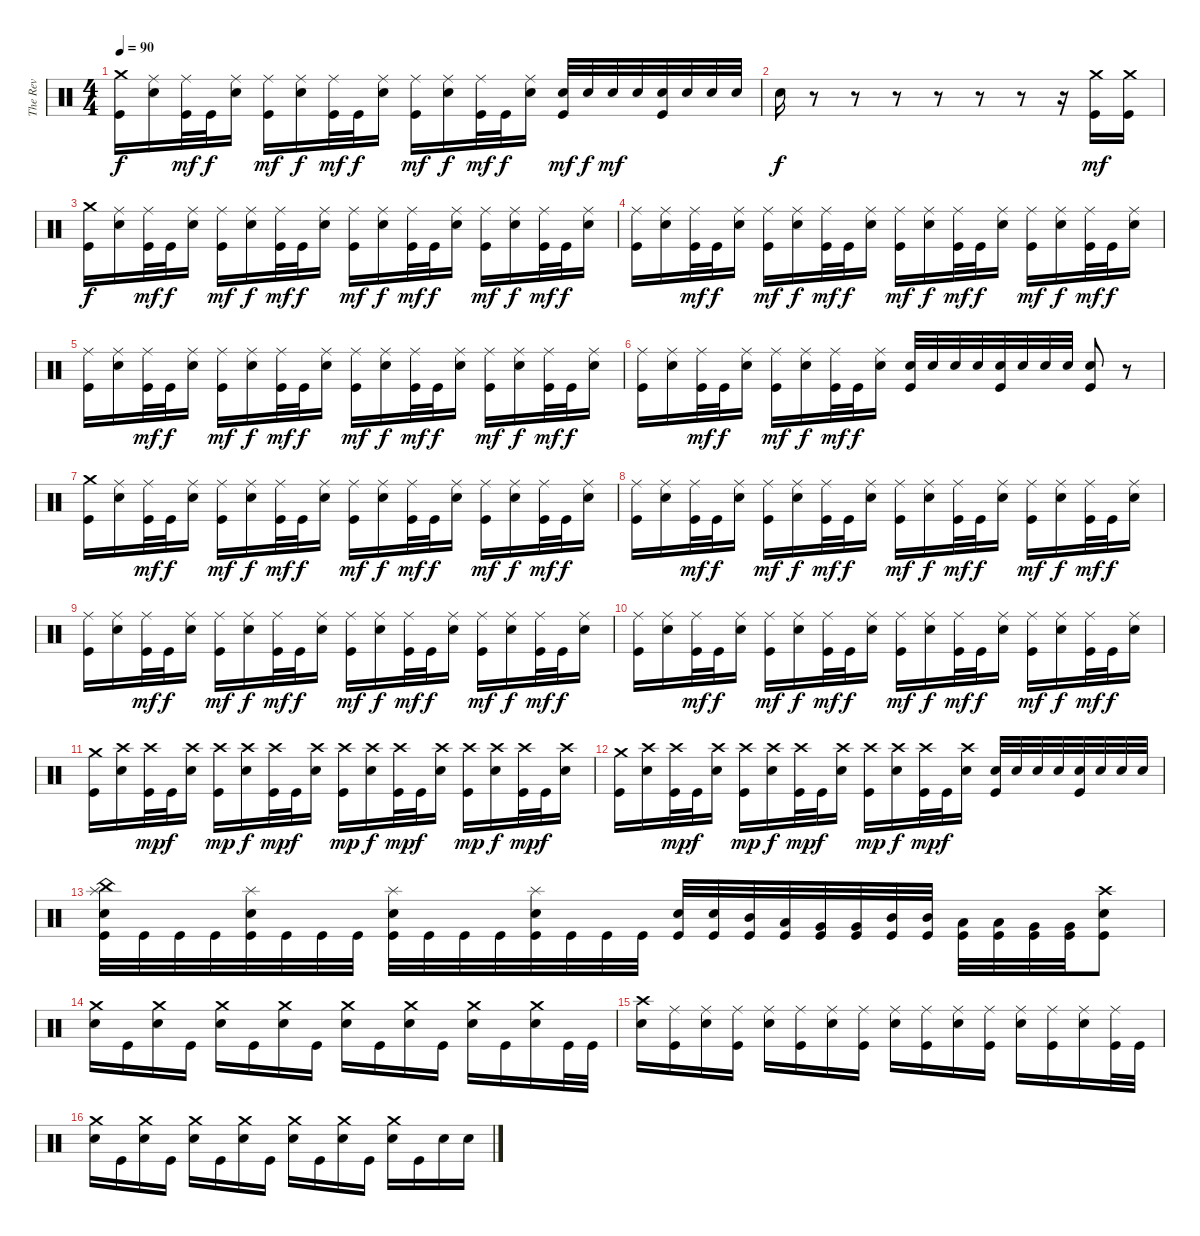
\track ("The Rev" "The Rev") {instrument percussion}
\staff {score}
\articulation defaults
\ts (4 4)
\tempo 90
\clef neutral
\ks c
("Crash medium (hit)" "Kick (hit)").16{dy f} ("Ride (middle)" "Electric Snare (hit)").16 ("Ride (middle)" "Kick (hit)").32{dy mf} "Kick (hit)".32{dy f} ("Ride (middle)" "Electric Snare (hit)").16 ("Ride (middle)" "Kick (hit)").16{dy mf} ("Ride (middle)" "Electric Snare (hit)").16{dy f} ("Ride (middle)" "Kick (hit)").32{dy mf} "Kick (hit)".32{dy f} ("Ride (middle)" "Electric Snare (hit)").16 ("Ride (middle)" "Kick (hit)").16{dy mf} ("Ride (middle)" "Electric Snare (hit)").16{dy f} ("Ride (middle)" "Kick (hit)").32{dy mf} "Kick (hit)".32{dy f} ("Ride (middle)" "Electric Snare (hit)").16 ("Electric Snare (hit)" "Kick (hit)").32{dy mf} "Electric Snare (hit)".32{dy f} "Electric Snare (hit)".32{dy mf} "Electric Snare (hit)".32 ("Electric Snare (hit)" "Kick (hit)").32 "Electric Snare (hit)".32 "Electric Snare (hit)".32 "Electric Snare (hit)".32 |
"Electric Snare (hit)".16{dy f} r.8 r.8 r.8 r.8 r.8 r.8 r.16 ("Crash medium (hit)" "Kick (hit)").16{dy mf} ("Crash medium (hit)" "Kick (hit)").16 |
("Crash medium (hit)" "Kick (hit)").16{dy f} ("Ride (middle)" "Electric Snare (hit)").16 ("Ride (middle)" "Kick (hit)").32{dy mf} "Kick (hit)".32{dy f} ("Ride (middle)" "Electric Snare (hit)").16 ("Ride (middle)" "Kick (hit)").16{dy mf} ("Ride (middle)" "Electric Snare (hit)").16{dy f} ("Ride (middle)" "Kick (hit)").32{dy mf} "Kick (hit)".32{dy f} ("Ride (middle)" "Electric Snare (hit)").16 ("Ride (middle)" "Kick (hit)").16{dy mf} ("Ride (middle)" "Electric Snare (hit)").16{dy f} ("Ride (middle)" "Kick (hit)").32{dy mf} "Kick (hit)".32{dy f} ("Ride (middle)" "Electric Snare (hit)").16 ("Ride (middle)" "Kick (hit)").16{dy mf} ("Ride (middle)" "Electric Snare (hit)").16{dy f} ("Ride (middle)" "Kick (hit)").32{dy mf} "Kick (hit)".32{dy f} ("Ride (middle)" "Electric Snare (hit)").16 |
("Ride (middle)" "Kick (hit)").16 ("Ride (middle)" "Electric Snare (hit)").16 ("Ride (middle)" "Kick (hit)").32{dy mf} "Kick (hit)".32{dy f} ("Ride (middle)" "Electric Snare (hit)").16 ("Ride (middle)" "Kick (hit)").16{dy mf} ("Ride (middle)" "Electric Snare (hit)").16{dy f} ("Ride (middle)" "Kick (hit)").32{dy mf} "Kick (hit)".32{dy f} ("Ride (middle)" "Electric Snare (hit)").16 ("Ride (middle)" "Kick (hit)").16{dy mf} ("Ride (middle)" "Electric Snare (hit)").16{dy f} ("Ride (middle)" "Kick (hit)").32{dy mf} "Kick (hit)".32{dy f} ("Ride (middle)" "Electric Snare (hit)").16 ("Ride (middle)" "Kick (hit)").16{dy mf} ("Ride (middle)" "Electric Snare (hit)").16{dy f} ("Ride (middle)" "Kick (hit)").32{dy mf} "Kick (hit)".32{dy f} ("Ride (middle)" "Electric Snare (hit)").16 |
("Ride (middle)" "Kick (hit)").16 ("Ride (middle)" "Electric Snare (hit)").16 ("Ride (middle)" "Kick (hit)").32{dy mf} "Kick (hit)".32{dy f} ("Ride (middle)" "Electric Snare (hit)").16 ("Ride (middle)" "Kick (hit)").16{dy mf} ("Ride (middle)" "Electric Snare (hit)").16{dy f} ("Ride (middle)" "Kick (hit)").32{dy mf} "Kick (hit)".32{dy f} ("Ride (middle)" "Electric Snare (hit)").16 ("Ride (middle)" "Kick (hit)").16{dy mf} ("Ride (middle)" "Electric Snare (hit)").16{dy f} ("Ride (middle)" "Kick (hit)").32{dy mf} "Kick (hit)".32{dy f} ("Ride (middle)" "Electric Snare (hit)").16 ("Ride (middle)" "Kick (hit)").16{dy mf} ("Ride (middle)" "Electric Snare (hit)").16{dy f} ("Ride (middle)" "Kick (hit)").32{dy mf} "Kick (hit)".32{dy f} ("Ride (middle)" "Electric Snare (hit)").16 |
("Ride (middle)" "Kick (hit)").16 ("Ride (middle)" "Electric Snare (hit)").16 ("Ride (middle)" "Kick (hit)").32{dy mf} "Kick (hit)".32{dy f} ("Ride (middle)" "Electric Snare (hit)").16 ("Ride (middle)" "Kick (hit)").16{dy mf} ("Ride (middle)" "Electric Snare (hit)").16{dy f} ("Ride (middle)" "Kick (hit)").32{dy mf} "Kick (hit)".32{dy f} ("Ride (middle)" "Electric Snare (hit)").16 ("Electric Snare (hit)" "Kick (hit)").32 "Electric Snare (hit)".32 "Electric Snare (hit)".32 "Electric Snare (hit)".32 ("Electric Snare (hit)" "Kick (hit)").32 "Electric Snare (hit)".32 "Electric Snare (hit)".32 "Electric Snare (hit)".32 ("Electric Snare (hit)" "Kick (hit)").8 r.8 |
("Crash medium (hit)" "Kick (hit)").16 ("Ride (middle)" "Electric Snare (hit)").16 ("Ride (middle)" "Kick (hit)").32{dy mf} "Kick (hit)".32{dy f} ("Ride (middle)" "Electric Snare (hit)").16 ("Ride (middle)" "Kick (hit)").16{dy mf} ("Ride (middle)" "Electric Snare (hit)").16{dy f} ("Ride (middle)" "Kick (hit)").32{dy mf} "Kick (hit)".32{dy f} ("Ride (middle)" "Electric Snare (hit)").16 ("Ride (middle)" "Kick (hit)").16{dy mf} ("Ride (middle)" "Electric Snare (hit)").16{dy f} ("Ride (middle)" "Kick (hit)").32{dy mf} "Kick (hit)".32{dy f} ("Ride (middle)" "Electric Snare (hit)").16 ("Ride (middle)" "Kick (hit)").16{dy mf} ("Ride (middle)" "Electric Snare (hit)").16{dy f} ("Ride (middle)" "Kick (hit)").32{dy mf} "Kick (hit)".32{dy f} ("Ride (middle)" "Electric Snare (hit)").16 |
("Ride (middle)" "Kick (hit)").16 ("Ride (middle)" "Electric Snare (hit)").16 ("Ride (middle)" "Kick (hit)").32{dy mf} "Kick (hit)".32{dy f} ("Ride (middle)" "Electric Snare (hit)").16 ("Ride (middle)" "Kick (hit)").16{dy mf} ("Ride (middle)" "Electric Snare (hit)").16{dy f} ("Ride (middle)" "Kick (hit)").32{dy mf} "Kick (hit)".32{dy f} ("Ride (middle)" "Electric Snare (hit)").16 ("Ride (middle)" "Kick (hit)").16{dy mf} ("Ride (middle)" "Electric Snare (hit)").16{dy f} ("Ride (middle)" "Kick (hit)").32{dy mf} "Kick (hit)".32{dy f} ("Ride (middle)" "Electric Snare (hit)").16 ("Ride (middle)" "Kick (hit)").16{dy mf} ("Ride (middle)" "Electric Snare (hit)").16{dy f} ("Ride (middle)" "Kick (hit)").32{dy mf} "Kick (hit)".32{dy f} ("Ride (middle)" "Electric Snare (hit)").16 |
("Ride (middle)" "Kick (hit)").16 ("Ride (middle)" "Electric Snare (hit)").16 ("Ride (middle)" "Kick (hit)").32{dy mf} "Kick (hit)".32{dy f} ("Ride (middle)" "Electric Snare (hit)").16 ("Ride (middle)" "Kick (hit)").16{dy mf} ("Ride (middle)" "Electric Snare (hit)").16{dy f} ("Ride (middle)" "Kick (hit)").32{dy mf} "Kick (hit)".32{dy f} ("Ride (middle)" "Electric Snare (hit)").16 ("Ride (middle)" "Kick (hit)").16{dy mf} ("Ride (middle)" "Electric Snare (hit)").16{dy f} ("Ride (middle)" "Kick (hit)").32{dy mf} "Kick (hit)".32{dy f} ("Ride (middle)" "Electric Snare (hit)").16 ("Ride (middle)" "Kick (hit)").16{dy mf} ("Ride (middle)" "Electric Snare (hit)").16{dy f} ("Ride (middle)" "Kick (hit)").32{dy mf} "Kick (hit)".32{dy f} ("Ride (middle)" "Electric Snare (hit)").16 |
("Ride (middle)" "Kick (hit)").16 ("Ride (middle)" "Electric Snare (hit)").16 ("Ride (middle)" "Kick (hit)").32{dy mf} "Kick (hit)".32{dy f} ("Ride (middle)" "Electric Snare (hit)").16 ("Ride (middle)" "Kick (hit)").16{dy mf} ("Ride (middle)" "Electric Snare (hit)").16{dy f} ("Ride (middle)" "Kick (hit)").32{dy mf} "Kick (hit)".32{dy f} ("Ride (middle)" "Electric Snare (hit)").16 ("Ride (middle)" "Kick (hit)").16{dy mf} ("Ride (middle)" "Electric Snare (hit)").16{dy f} ("Ride (middle)" "Kick (hit)").32{dy mf} "Kick (hit)".32{dy f} ("Ride (middle)" "Electric Snare (hit)").16 ("Ride (middle)" "Kick (hit)").16{dy mf} ("Ride (middle)" "Electric Snare (hit)").16{dy f} ("Ride (middle)" "Kick (hit)").32{dy mf} "Kick (hit)".32{dy f} ("Ride (middle)" "Electric Snare (hit)").16 |
("Crash medium (hit)" "Kick (hit)").16 ("Crash high (hit)" "Electric Snare (hit)").16 ("Crash high (hit)" "Kick (hit)").32{dy mp} "Kick (hit)".32{dy f} ("Crash high (hit)" "Electric Snare (hit)").16 ("Crash high (hit)" "Kick (hit)").16{dy mp} ("Crash high (hit)" "Electric Snare (hit)").16{dy f} ("Crash high (hit)" "Kick (hit)").32{dy mp} "Kick (hit)".32{dy f} ("Crash high (hit)" "Electric Snare (hit)").16 ("Crash high (hit)" "Kick (hit)").16{dy mp} ("Crash high (hit)" "Electric Snare (hit)").16{dy f} ("Crash high (hit)" "Kick (hit)").32{dy mp} "Kick (hit)".32{dy f} ("Crash high (hit)" "Electric Snare (hit)").16 ("Crash high (hit)" "Kick (hit)").16{dy mp} ("Crash high (hit)" "Electric Snare (hit)").16{dy f} ("Crash high (hit)" "Kick (hit)").32{dy mp} "Kick (hit)".32{dy f} ("Crash high (hit)" "Electric Snare (hit)").16 |
("Crash medium (hit)" "Kick (hit)").16 ("Crash high (hit)" "Electric Snare (hit)").16 ("Crash high (hit)" "Kick (hit)").32{dy mp} "Kick (hit)".32{dy f} ("Crash high (hit)" "Electric Snare (hit)").16 ("Crash high (hit)" "Kick (hit)").16{dy mp} ("Crash high (hit)" "Electric Snare (hit)").16{dy f} ("Crash high (hit)" "Kick (hit)").32{dy mp} "Kick (hit)".32{dy f} ("Crash high (hit)" "Electric Snare (hit)").16 ("Crash high (hit)" "Kick (hit)").16{dy mp} ("Crash high (hit)" "Electric Snare (hit)").16{dy f} ("Crash high (hit)" "Kick (hit)").32{dy mp} "Kick (hit)".32{dy f} ("Crash high (hit)" "Electric Snare (hit)").16 ("Electric Snare (hit)" "Kick (hit)").32 "Electric Snare (hit)".32 "Electric Snare (hit)".32 "Electric Snare (hit)".32 ("Electric Snare (hit)" "Kick (hit)").32 "Electric Snare (hit)".32 "Electric Snare (hit)".32 "Electric Snare (hit)".32 |
("China (hit)" "Splash (hit)" "Electric Snare (hit)" "Kick (hit)").32 "Kick (hit)".32 "Kick (hit)".32 "Kick (hit)".32 ("Splash (hit)" "Electric Snare (hit)" "Kick (hit)").32 "Kick (hit)".32 "Kick (hit)".32 "Kick (hit)".32 ("Splash (hit)" "Electric Snare (hit)" "Kick (hit)").32 "Kick (hit)".32 "Kick (hit)".32 "Kick (hit)".32 ("Splash (hit)" "Electric Snare (hit)" "Kick (hit)").32 "Kick (hit)".32 "Kick (hit)".32 "Kick (hit)".32 ("Electric Snare (hit)" "Kick (hit)").32 ("Electric Snare (hit)" "Kick (hit)").32 ("Mid Tom (hit)" "Kick (hit)").32 ("Low Tom (hit)" "Kick (hit)").32 ("Very Low Tom (hit)" "Kick (hit)").32 ("Very Low Tom (hit)" "Kick (hit)").32 ("Mid Tom (hit)" "Kick (hit)").32 ("Mid Tom (hit)" "Kick (hit)").32 ("Low Tom (hit)" "Kick (hit)").32 ("Low Tom (hit)" "Kick (hit)").32 ("Very Low Tom (hit)" "Kick (hit)").32 ("Very Low Tom (hit)" "Kick (hit)").32 ("Crash high (hit)" "Electric Snare (hit)" "Kick (hit)").8 |
("Crash medium (hit)" "Electric Snare (hit)").16 "Kick (hit)".16 ("Crash medium (hit)" "Electric Snare (hit)").16 "Kick (hit)".16 ("Crash medium (hit)" "Electric Snare (hit)").16 "Kick (hit)".16 ("Crash medium (hit)" "Electric Snare (hit)").16 "Kick (hit)".16 ("Crash medium (hit)" "Electric Snare (hit)").16 "Kick (hit)".16 ("Crash medium (hit)" "Electric Snare (hit)").16 "Kick (hit)".16 ("Crash medium (hit)" "Electric Snare (hit)").16 "Kick (hit)".16 ("Crash medium (hit)" "Electric Snare (hit)").16 "Kick (hit)".32 "Kick (hit)".32 |
("Crash high (hit)" "Electric Snare (hit)").16 ("Ride (middle)" "Kick (hit)").16 ("Ride (middle)" "Electric Snare (hit)").16 ("Ride (middle)" "Kick (hit)").16 ("Ride (middle)" "Electric Snare (hit)").16 ("Ride (middle)" "Kick (hit)").16 ("Ride (middle)" "Electric Snare (hit)").16 ("Ride (middle)" "Kick (hit)").16 ("Ride (middle)" "Electric Snare (hit)").16 ("Ride (middle)" "Kick (hit)").16 ("Ride (middle)" "Electric Snare (hit)").16 ("Ride (middle)" "Kick (hit)").16 ("Ride (middle)" "Electric Snare (hit)").16 ("Ride (middle)" "Kick (hit)").16 ("Ride (middle)" "Electric Snare (hit)").16 ("Ride (middle)" "Kick (hit)").32 "Kick (hit)".32 |
("Crash medium (hit)" "Electric Snare (hit)").16 "Kick (hit)".16 ("Crash medium (hit)" "Electric Snare (hit)").16 "Kick (hit)".16 ("Crash medium (hit)" "Electric Snare (hit)").16 "Kick (hit)".16 ("Crash medium (hit)" "Electric Snare (hit)").16 "Kick (hit)".16 ("Crash medium (hit)" "Electric Snare (hit)").16 "Kick (hit)".16 ("Crash medium (hit)" "Electric Snare (hit)").16 "Kick (hit)".16 ("Crash medium (hit)" "Electric Snare (hit)").16 "Kick (hit)".16 "Electric Snare (hit)".16 "Electric Snare (hit)".16
